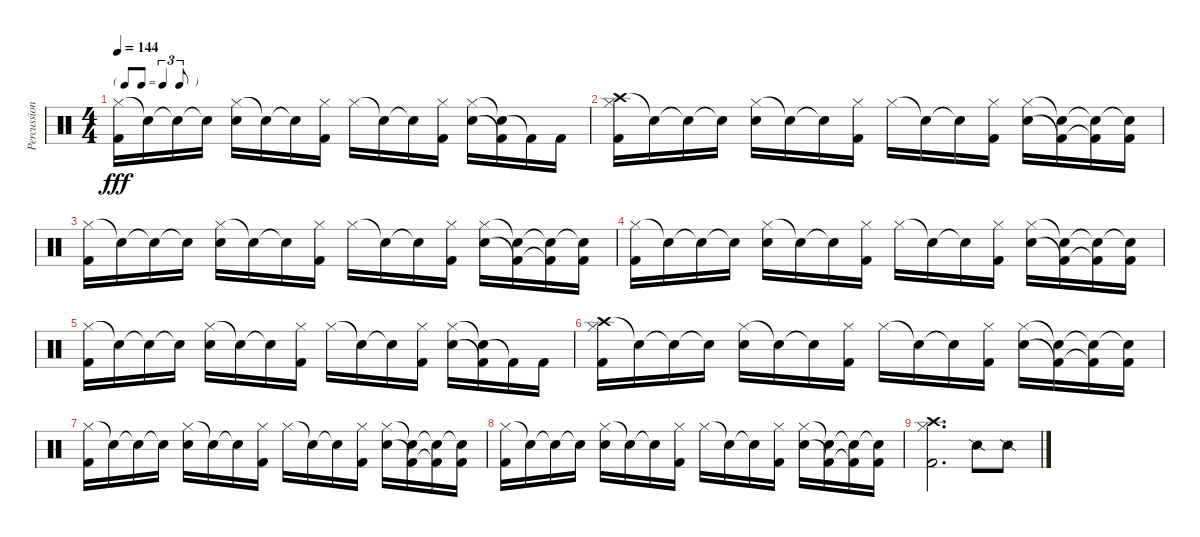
\track ("Percussion" "Percussion") {instrument percussion}
\staff {score}
\articulation defaults
\ts (4 4)
\tf triplet8th
\tempo 144
\clef neutral
\ks c
("Hi-Hat (closed)" "Kick (hit) 2").16{dy fff} "Snare (hit)"{t}.16 "Snare (hit)"{t}.16 "Snare (hit)"{t}.16 ("Hi-Hat (closed)" "Electric Snare (hit)").16 "Snare (hit)"{t}.16 "Snare (hit)"{t}.16 ("Hi-Hat (closed)" "Kick (hit) 2").16 "Hi-Hat (closed)".16 "Snare (hit)"{t}.16 "Snare (hit)"{t}.16 ("Hi-Hat (closed)" "Kick (hit) 2").16 ("Hi-Hat (closed)" "Electric Snare (hit)").16 ("Snare (hit)"{t} "Kick (hit) 2"{t}).16 "Kick (hit) 2"{t}.16 "Kick (hit) 2".16 |
("Crash high (hit)" "Hi-Hat (closed)" "Kick (hit) 2").16 "Snare (hit)"{t}.16 "Snare (hit)"{t}.16 "Snare (hit)"{t}.16 ("Hi-Hat (closed)" "Electric Snare (hit)").16 "Snare (hit)"{t}.16 "Snare (hit)"{t}.16 ("Hi-Hat (closed)" "Kick (hit) 2").16 "Hi-Hat (closed)".16 "Snare (hit)"{t}.16 "Snare (hit)"{t}.16 ("Hi-Hat (closed)" "Kick (hit) 2").16 ("Hi-Hat (closed)" "Electric Snare (hit)").16 ("Snare (hit)"{t} "Kick (hit) 2"{t}).16 ("Snare (hit)"{t} "Kick (hit) 2"{t}).16 ("Snare (hit)"{t} "Kick (hit) 2").16 |
("Hi-Hat (closed)" "Kick (hit) 2").16 "Snare (hit)"{t}.16 "Snare (hit)"{t}.16 "Snare (hit)"{t}.16 ("Hi-Hat (closed)" "Electric Snare (hit)").16 "Snare (hit)"{t}.16 "Snare (hit)"{t}.16 ("Hi-Hat (closed)" "Kick (hit) 2").16 "Hi-Hat (closed)".16 "Snare (hit)"{t}.16 "Snare (hit)"{t}.16 ("Hi-Hat (closed)" "Kick (hit) 2").16 ("Hi-Hat (closed)" "Electric Snare (hit)").16 ("Snare (hit)"{t} "Kick (hit) 2"{t}).16 ("Snare (hit)"{t} "Kick (hit) 2"{t}).16 ("Snare (hit)"{t} "Kick (hit) 2").16 |
("Hi-Hat (closed)" "Kick (hit) 2").16 "Snare (hit)"{t}.16 "Snare (hit)"{t}.16 "Snare (hit)"{t}.16 ("Hi-Hat (closed)" "Electric Snare (hit)").16 "Snare (hit)"{t}.16 "Snare (hit)"{t}.16 ("Hi-Hat (closed)" "Kick (hit) 2").16 "Hi-Hat (closed)".16 "Snare (hit)"{t}.16 "Snare (hit)"{t}.16 ("Hi-Hat (closed)" "Kick (hit) 2").16 ("Hi-Hat (closed)" "Electric Snare (hit)").16 ("Snare (hit)"{t} "Kick (hit) 2"{t}).16 ("Snare (hit)"{t} "Kick (hit) 2"{t}).16 ("Snare (hit)"{t} "Kick (hit) 2").16 |
("Hi-Hat (closed)" "Kick (hit) 2").16 "Snare (hit)"{t}.16 "Snare (hit)"{t}.16 "Snare (hit)"{t}.16 ("Hi-Hat (closed)" "Electric Snare (hit)").16 "Snare (hit)"{t}.16 "Snare (hit)"{t}.16 ("Hi-Hat (closed)" "Kick (hit) 2").16 "Hi-Hat (closed)".16 "Snare (hit)"{t}.16 "Snare (hit)"{t}.16 ("Hi-Hat (closed)" "Kick (hit) 2").16 ("Hi-Hat (closed)" "Electric Snare (hit)").16 ("Snare (hit)"{t} "Kick (hit) 2"{t}).16 "Kick (hit) 2"{t}.16 "Kick (hit) 2".16 |
("Crash high (hit)" "Hi-Hat (closed)" "Kick (hit) 2").16 "Snare (hit)"{t}.16 "Snare (hit)"{t}.16 "Snare (hit)"{t}.16 ("Hi-Hat (closed)" "Electric Snare (hit)").16 "Snare (hit)"{t}.16 "Snare (hit)"{t}.16 ("Hi-Hat (closed)" "Kick (hit) 2").16 "Hi-Hat (closed)".16 "Snare (hit)"{t}.16 "Snare (hit)"{t}.16 ("Hi-Hat (closed)" "Kick (hit) 2").16 ("Hi-Hat (closed)" "Electric Snare (hit)").16 ("Snare (hit)"{t} "Kick (hit) 2"{t}).16 ("Snare (hit)"{t} "Kick (hit) 2"{t}).16 ("Snare (hit)"{t} "Kick (hit) 2").16 |
("Hi-Hat (closed)" "Kick (hit) 2").16 "Snare (hit)"{t}.16 "Snare (hit)"{t}.16 "Snare (hit)"{t}.16 ("Hi-Hat (closed)" "Electric Snare (hit)").16 "Snare (hit)"{t}.16 "Snare (hit)"{t}.16 ("Hi-Hat (closed)" "Kick (hit) 2").16 "Hi-Hat (closed)".16 "Snare (hit)"{t}.16 "Snare (hit)"{t}.16 ("Hi-Hat (closed)" "Kick (hit) 2").16 ("Hi-Hat (closed)" "Electric Snare (hit)").16 ("Snare (hit)"{t} "Kick (hit) 2"{t}).16 ("Snare (hit)"{t} "Kick (hit) 2"{t}).16 ("Snare (hit)"{t} "Kick (hit) 2").16 |
("Hi-Hat (closed)" "Kick (hit) 2").16 "Snare (hit)"{t}.16 "Snare (hit)"{t}.16 "Snare (hit)"{t}.16 ("Hi-Hat (closed)" "Electric Snare (hit)").16 "Snare (hit)"{t}.16 "Snare (hit)"{t}.16 ("Hi-Hat (closed)" "Kick (hit) 2").16 "Hi-Hat (closed)".16 "Snare (hit)"{t}.16 "Snare (hit)"{t}.16 ("Hi-Hat (closed)" "Kick (hit) 2").16 ("Hi-Hat (closed)" "Electric Snare (hit)").16 ("Snare (hit)"{t} "Kick (hit) 2"{t}).16 ("Snare (hit)"{t} "Kick (hit) 2"{t}).16 ("Snare (hit)"{t} "Kick (hit) 2").16 |
("Crash high (hit)" "Hi-Hat (closed)" "Kick (hit) 2").2{d} "Snare (side stick) 2".8 "Snare (side stick) 2".8
